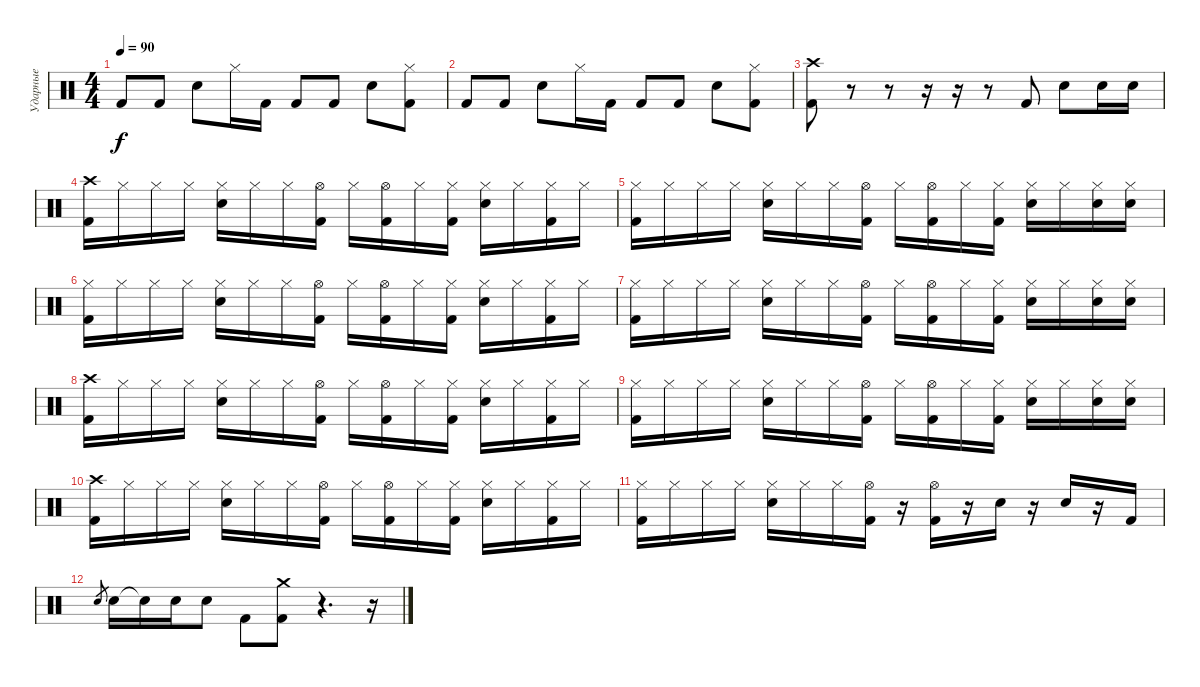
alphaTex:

\track ("Ударные" "Ударные") {instrument percussion}
\staff {score}
\articulation defaults
\ts (4 4)
\tempo 90
\clef neutral
\ks c "Kick (hit) 2".8{dy f} "Kick (hit) 2".8 "Electric Snare (hit)".8 "Hi-Hat (closed)".16 "Kick (hit) 2".16 "Kick (hit) 2".8 "Kick (hit) 2".8 "Electric Snare (hit)".8
("Hi-Hat (closed)" "Kick (hit) 2").8 |
"Kick (hit) 2".8 "Kick (hit) 2".8 "Electric Snare (hit)".8 "Hi-Hat (closed)".16 "Kick (hit) 2".16 "Kick (hit) 2".8 "Kick (hit) 2".8 "Electric Snare (hit)".8 ("Hi-Hat (closed)" "Kick (hit) 2").8 |
("Crash high (hit)" "Kick (hit) 2").8 r.8 r.8 r.16 r.16 r.8 "Kick (hit) 2".8 "Electric Snare (hit)".8 "Electric Snare (hit)".16 "Electric Snare (hit)".16 |
("Crash high (hit)" "Kick (hit) 2").16 "Hi-Hat (closed)".16 "Hi-Hat (closed)".16 "Hi-Hat (closed)".16 ("Hi-Hat (closed)" "Electric Snare (hit)").16 "Hi-Hat (closed)".16 "Hi-Hat (closed)".16 ("Hi-Hat (open)" "Kick (hit) 2").16 "Hi-Hat (closed)".16 ("Hi-Hat (open)" "Kick (hit) 2").16 "Hi-Hat (closed)".16 ("Hi-Hat (closed)" "Kick (hit) 2").16 ("Hi-Hat (closed)" "Electric Snare (hit)").16 "Hi-Hat (closed)".16 ("Hi-Hat (closed)" "Kick (hit) 2").16 "Hi-Hat (closed)".16 |
("Hi-Hat (closed)" "Kick (hit) 2").16 "Hi-Hat (closed)".16 "Hi-Hat (closed)".16 "Hi-Hat (closed)".16 ("Hi-Hat (closed)" "Electric Snare (hit)").16 "Hi-Hat (closed)".16 "Hi-Hat (closed)".16 ("Hi-Hat (open)" "Kick (hit) 2").16 "Hi-Hat (closed)".16 ("Hi-Hat (open)" "Kick (hit) 2").16 "Hi-Hat (closed)".16 ("Hi-Hat (closed)" "Kick (hit) 2").16 ("Hi-Hat (closed)" "Electric Snare (hit)").16 "Hi-Hat (closed)".16 ("Hi-Hat (closed)" "Electric Snare (hit)").16 ("Hi-Hat (closed)" "Electric Snare (hit)").16 |
("Hi-Hat (closed)" "Kick (hit) 2").16 "Hi-Hat (closed)".16 "Hi-Hat (closed)".16 "Hi-Hat (closed)".16 ("Hi-Hat (closed)" "Electric Snare (hit)").16 "Hi-Hat (closed)".16 "Hi-Hat (closed)".16 ("Hi-Hat (open)" "Kick (hit) 2").16 "Hi-Hat (closed)".16 ("Hi-Hat (open)" "Kick (hit) 2").16 "Hi-Hat (closed)".16 ("Hi-Hat (closed)" "Kick (hit) 2").16 ("Hi-Hat (closed)" "Electric Snare (hit)").16 "Hi-Hat (closed)".16 ("Hi-Hat (closed)" "Kick (hit) 2").16 "Hi-Hat (closed)".16 |
("Hi-Hat (closed)" "Kick (hit) 2").16 "Hi-Hat (closed)".16 "Hi-Hat (closed)".16 "Hi-Hat (closed)".16 ("Hi-Hat (closed)" "Electric Snare (hit)").16 "Hi-Hat (closed)".16 "Hi-Hat (closed)".16 ("Hi-Hat (open)" "Kick (hit) 2").16 "Hi-Hat (closed)".16 ("Hi-Hat (open)" "Kick (hit) 2").16 "Hi-Hat (closed)".16 ("Hi-Hat (closed)" "Kick (hit) 2").16 ("Hi-Hat (closed)" "Electric Snare (hit)").16 "Hi-Hat (closed)".16 ("Hi-Hat (closed)" "Electric Snare (hit)").16 ("Hi-Hat (closed)" "Electric Snare (hit)").16 |
("Crash high (hit)" "Kick (hit) 2").16 "Hi-Hat (closed)".16 "Hi-Hat (closed)".16 "Hi-Hat (closed)".16 ("Hi-Hat (closed)" "Electric Snare (hit)").16 "Hi-Hat (closed)".16 "Hi-Hat (closed)".16 ("Hi-Hat (open)" "Kick (hit) 2").16 "Hi-Hat (closed)".16 ("Hi-Hat (open)" "Kick (hit) 2").16 "Hi-Hat (closed)".16 ("Hi-Hat (closed)" "Kick (hit) 2").16 ("Hi-Hat (closed)" "Electric Snare (hit)").16 "Hi-Hat (closed)".16 ("Hi-Hat (closed)" "Kick (hit) 2").16 "Hi-Hat (closed)".16 |
("Hi-Hat (closed)" "Kick (hit) 2").16 "Hi-Hat (closed)".16 "Hi-Hat (closed)".16 "Hi-Hat (closed)".16 ("Hi-Hat (closed)" "Electric Snare (hit)").16 "Hi-Hat (closed)".16 "Hi-Hat (closed)".16 ("Hi-Hat (open)" "Kick (hit) 2").16 "Hi-Hat (closed)".16 ("Hi-Hat (open)" "Kick (hit) 2").16 "Hi-Hat (closed)".16 ("Hi-Hat (closed)" "Kick (hit) 2").16 ("Hi-Hat (closed)" "Electric Snare (hit)").16 "Hi-Hat (closed)".16 ("Hi-Hat (closed)" "Electric Snare (hit)").16 ("Hi-Hat (closed)" "Electric Snare (hit)").16 |
("Crash high (hit)" "Kick (hit) 2").16 "Hi-Hat (closed)".16 "Hi-Hat (closed)".16 "Hi-Hat (closed)".16 ("Hi-Hat (closed)" "Electric Snare (hit)").16 "Hi-Hat (closed)".16 "Hi-Hat (closed)".16 ("Hi-Hat (open)" "Kick (hit) 2").16 "Hi-Hat (closed)".16 ("Hi-Hat (open)" "Kick (hit) 2").16 "Hi-Hat (closed)".16 ("Hi-Hat (closed)" "Kick (hit) 2").16 ("Hi-Hat (closed)" "Electric Snare (hit)").16 "Hi-Hat (closed)".16 ("Hi-Hat (closed)" "Kick (hit) 2").16 "Hi-Hat (closed)".16 |
("Hi-Hat (closed)" "Kick (hit) 2").16 "Hi-Hat (closed)".16 "Hi-Hat (closed)".16 "Hi-Hat (closed)".16 ("Hi-Hat (closed)" "Electric Snare (hit)").16 "Hi-Hat (closed)".16 "Hi-Hat (closed)".16 ("Hi-Hat (open)" "Kick (hit) 2").16 r.16 ("Hi-Hat (open)" "Kick (hit) 2").16 r.16 "Electric Snare (hit)".16 r.16 "Electric Snare (hit)".16 r.16 "Kick (hit) 2".16 |
"Electric Snare (hit)".8{gr} "Electric Snare (hit)".16 "Snare (hit)"{t}.16 "Electric Snare (hit)".16 "Electric Snare (hit)".8 "Kick (hit) 2".8 ("Crash medium (hit)" "Kick (hit) 2").8 r.4{d} r.16
